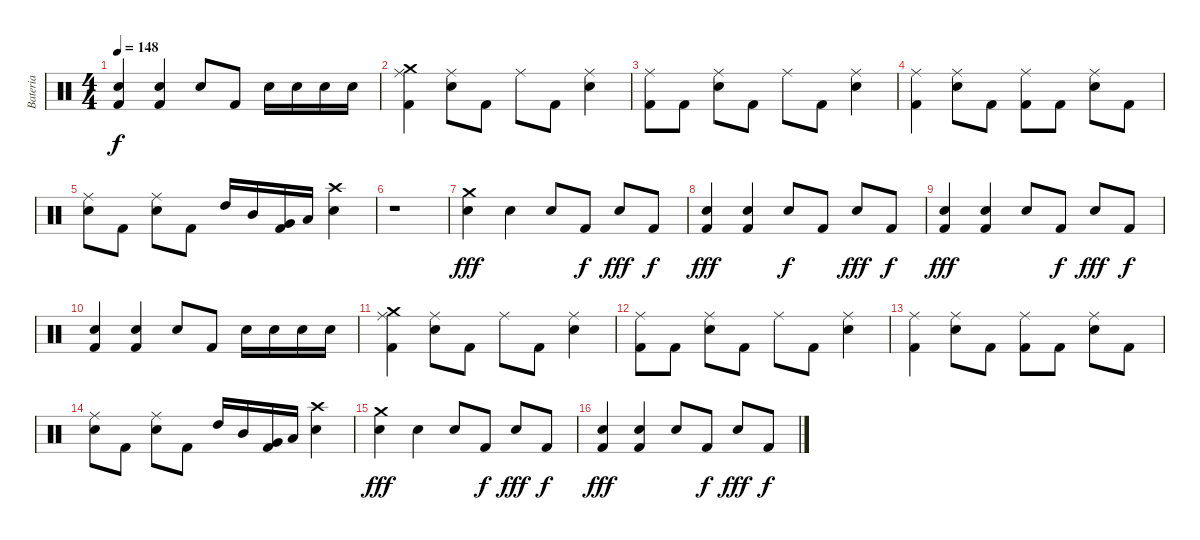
\track ("Bateria" "Bateria") {instrument percussion}
\staff {score}
\articulation defaults
\ts (4 4)
\tempo 148
\clef neutral
\ks c
("Electric Snare (hit)" "Kick (hit) 2").4{dy f} ("Electric Snare (hit)" "Kick (hit) 2").4 "Electric Snare (hit)".8 "Kick (hit) 2".8 "Electric Snare (hit)".16 "Electric Snare (hit)".16 "Electric Snare (hit)".16 "Electric Snare (hit)".16 |
("Crash medium (hit)" "Kick (hit) 2" "Ride (middle)").4 ("Electric Snare (hit)" "Ride (middle)").8 "Kick (hit) 2".8 "Ride (middle)".8 "Kick (hit) 2".8 ("Electric Snare (hit)" "Ride (middle)").4 |
("Kick (hit) 2" "Ride (middle)").8 "Kick (hit) 2".8 ("Electric Snare (hit)" "Ride (middle)").8 "Kick (hit) 2".8 "Ride (middle)".8 "Kick (hit) 2".8 ("Electric Snare (hit)" "Ride (middle)").4 |
("Kick (hit) 2" "Ride (middle)").4 ("Electric Snare (hit)" "Ride (middle)").8 "Kick (hit) 2".8 ("Kick (hit) 2" "Ride (middle)").8 "Kick (hit) 2".8 ("Electric Snare (hit)" "Ride (middle)").8 "Kick (hit) 2".8 |
("Electric Snare (hit)" "Ride (middle)").8 "Kick (hit) 2".8 ("Electric Snare (hit)" "Ride (middle)").8 "Kick (hit) 2".8 "High Tom (hit)".16 "Mid Tom (hit)".16 ("Very Low Tom (hit)" "Kick (hit) 2").16 "Low Floor Tom (hit)".16 ("Electric Snare (hit)" "Crash high (hit)").4 |
r.1 |
("Crash medium (hit)" "Electric Snare (hit)").4{dy fff} "Electric Snare (hit)".4 "Electric Snare (hit)".8 "Kick (hit) 2".8{dy f} "Electric Snare (hit)".8{dy fff} "Kick (hit) 2".8{dy f} |
("Kick (hit) 2" "Electric Snare (hit)").4{dy fff} ("Electric Snare (hit)" "Kick (hit) 2").4 "Electric Snare (hit)".8{dy f} "Kick (hit) 2".8 "Electric Snare (hit)".8{dy fff} "Kick (hit) 2".8{dy f} |
("Electric Snare (hit)" "Kick (hit) 2").4{dy fff} ("Electric Snare (hit)" "Kick (hit) 2").4 "Electric Snare (hit)".8 "Kick (hit) 2".8{dy f} "Electric Snare (hit)".8{dy fff} "Kick (hit) 2".8{dy f} |
("Electric Snare (hit)" "Kick (hit) 2").4 ("Electric Snare (hit)" "Kick (hit) 2").4 "Electric Snare (hit)".8 "Kick (hit) 2".8 "Electric Snare (hit)".16 "Electric Snare (hit)".16 "Electric Snare (hit)".16 "Electric Snare (hit)".16 |
("Crash medium (hit)" "Kick (hit) 2" "Ride (middle)").4 ("Electric Snare (hit)" "Ride (middle)").8 "Kick (hit) 2".8 "Ride (middle)".8 "Kick (hit) 2".8 ("Electric Snare (hit)" "Ride (middle)").4 |
("Kick (hit) 2" "Ride (middle)").8 "Kick (hit) 2".8 ("Electric Snare (hit)" "Ride (middle)").8 "Kick (hit) 2".8 "Ride (middle)".8 "Kick (hit) 2".8 ("Electric Snare (hit)" "Ride (middle)").4 |
("Kick (hit) 2" "Ride (middle)").4 ("Electric Snare (hit)" "Ride (middle)").8 "Kick (hit) 2".8 ("Kick (hit) 2" "Ride (middle)").8 "Kick (hit) 2".8 ("Electric Snare (hit)" "Ride (middle)").8 "Kick (hit) 2".8 |
("Electric Snare (hit)" "Ride (middle)").8 "Kick (hit) 2".8 ("Electric Snare (hit)" "Ride (middle)").8 "Kick (hit) 2".8 "High Tom (hit)".16 "Mid Tom (hit)".16 ("Very Low Tom (hit)" "Kick (hit) 2").16 "Low Floor Tom (hit)".16 ("Electric Snare (hit)" "Crash high (hit)").4 |
("Crash medium (hit)" "Electric Snare (hit)").4{dy fff} "Electric Snare (hit)".4 "Electric Snare (hit)".8 "Kick (hit) 2".8{dy f} "Electric Snare (hit)".8{dy fff} "Kick (hit) 2".8{dy f} |
("Kick (hit) 2" "Electric Snare (hit)").4{dy fff} ("Electric Snare (hit)" "Kick (hit) 2").4 "Electric Snare (hit)".8 "Kick (hit) 2".8{dy f} "Electric Snare (hit)".8{dy fff} "Kick (hit) 2".8{dy f}
